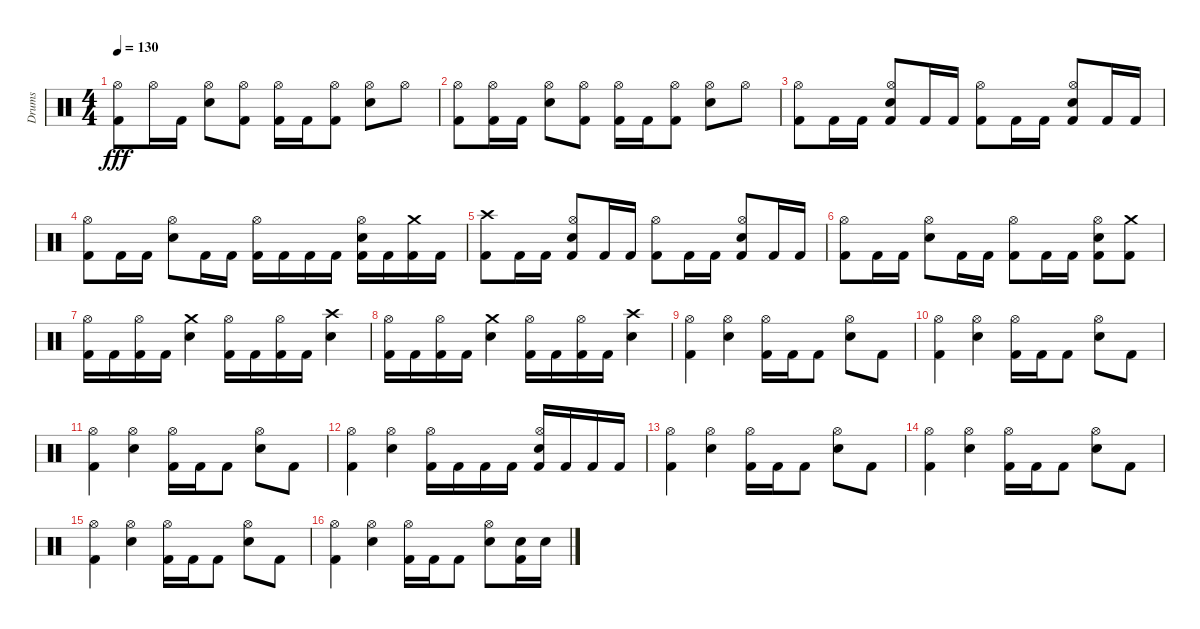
\track ("Drums" "Drums") {instrument percussion}
\staff {score}
\articulation defaults
\ts (4 4)
\tempo 130
\clef neutral
\ks c
("Kick (hit) 2" "Hi-Hat (open)").8{dy fff} "Hi-Hat (open)".16 "Kick (hit) 2".16 ("Electric Snare (hit)" "Hi-Hat (open)").8 ("Kick (hit) 2" "Hi-Hat (open)").8 ("Kick (hit) 2" "Hi-Hat (open)").16 "Kick (hit) 2".16 ("Kick (hit) 2" "Hi-Hat (open)").8 ("Electric Snare (hit)" "Hi-Hat (open)").8 "Hi-Hat (open)".8 |
("Hi-Hat (open)" "Kick (hit) 2").8 ("Hi-Hat (open)" "Kick (hit) 2").16 "Kick (hit) 2".16 ("Hi-Hat (open)" "Electric Snare (hit)").8 ("Hi-Hat (open)" "Kick (hit) 2").8 ("Hi-Hat (open)" "Kick (hit) 2").16 "Kick (hit) 2".16 ("Hi-Hat (open)" "Kick (hit) 2").8 ("Hi-Hat (open)" "Electric Snare (hit)").8 "Hi-Hat (open)".8 |
("Hi-Hat (open)" "Kick (hit) 2").8 "Kick (hit) 2".16 "Kick (hit) 2".16 ("Hi-Hat (open)" "Electric Snare (hit)" "Kick (hit) 2").8 "Kick (hit) 2".16 "Kick (hit) 2".16 ("Hi-Hat (open)" "Kick (hit) 2").8 "Kick (hit) 2".16 "Kick (hit) 2".16 ("Hi-Hat (open)" "Electric Snare (hit)" "Kick (hit) 2").8 "Kick (hit) 2".16 "Kick (hit) 2".16 |
("Hi-Hat (open)" "Kick (hit) 2").8 "Kick (hit) 2".16 "Kick (hit) 2".16 ("Hi-Hat (open)" "Electric Snare (hit)").8 "Kick (hit) 2".16 "Kick (hit) 2".16 ("Hi-Hat (open)" "Kick (hit) 2").16 "Kick (hit) 2".16 "Kick (hit) 2".16 "Kick (hit) 2".16 ("Hi-Hat (open)" "Electric Snare (hit)" "Kick (hit) 2").16 "Kick (hit) 2".16 ("Crash medium (hit)" "Kick (hit) 2").16 "Kick (hit) 2".16 |
("Crash high (hit)" "Kick (hit) 2").8 "Kick (hit) 2".16 "Kick (hit) 2".16 ("Hi-Hat (open)" "Electric Snare (hit)" "Kick (hit) 2").8 "Kick (hit) 2".16 "Kick (hit) 2".16 ("Hi-Hat (open)" "Kick (hit) 2").8 "Kick (hit) 2".16 "Kick (hit) 2".16 ("Hi-Hat (open)" "Electric Snare (hit)" "Kick (hit) 2").8 "Kick (hit) 2".16 "Kick (hit) 2".16 |
("Hi-Hat (open)" "Kick (hit) 2").8 "Kick (hit) 2".16 "Kick (hit) 2".16 ("Hi-Hat (open)" "Electric Snare (hit)").8 "Kick (hit) 2".16 "Kick (hit) 2".16 ("Hi-Hat (open)" "Kick (hit) 2").8 "Kick (hit) 2".16 "Kick (hit) 2".16 ("Hi-Hat (open)" "Electric Snare (hit)" "Kick (hit) 2").8 ("Crash medium (hit)" "Kick (hit) 2").8 |
("Hi-Hat (open)" "Kick (hit) 2").16 "Kick (hit) 2".16 ("Hi-Hat (open)" "Kick (hit) 2").16 "Kick (hit) 2".16 ("Crash medium (hit)" "Electric Snare (hit)").4 ("Hi-Hat (open)" "Kick (hit) 2").16 "Kick (hit) 2".16 ("Hi-Hat (open)" "Kick (hit) 2").16 "Kick (hit) 2".16 ("Crash high (hit)" "Electric Snare (hit)").4 |
("Kick (hit) 2" "Hi-Hat (open)").16 "Kick (hit) 2".16 ("Kick (hit) 2" "Hi-Hat (open)").16 "Kick (hit) 2".16 ("Electric Snare (hit)" "Crash medium (hit)").4 ("Hi-Hat (open)" "Kick (hit) 2").16 "Kick (hit) 2".16 ("Hi-Hat (open)" "Kick (hit) 2").16 "Kick (hit) 2".16 ("Crash high (hit)" "Electric Snare (hit)").4 |
("Hi-Hat (open)" "Kick (hit) 2").4 ("Hi-Hat (open)" "Snare (hit) 2").4 ("Hi-Hat (open)" "Kick (hit) 2").16 "Kick (hit) 2".16 "Kick (hit) 2".8 ("Hi-Hat (open)" "Electric Snare (hit)").8 "Kick (hit) 2".8 |
("Hi-Hat (open)" "Kick (hit) 2").4 ("Hi-Hat (open)" "Snare (hit) 2").4 ("Hi-Hat (open)" "Kick (hit) 2").16 "Kick (hit) 2".16 "Kick (hit) 2".8 ("Hi-Hat (open)" "Electric Snare (hit)").8 "Kick (hit) 2".8 |
("Hi-Hat (open)" "Kick (hit) 2").4 ("Hi-Hat (open)" "Snare (hit) 2").4 ("Hi-Hat (open)" "Kick (hit) 2").16 "Kick (hit) 2".16 "Kick (hit) 2".8 ("Hi-Hat (open)" "Electric Snare (hit)").8 "Kick (hit) 2".8 |
("Hi-Hat (open)" "Kick (hit) 2").4 ("Hi-Hat (open)" "Snare (hit) 2").4 ("Hi-Hat (open)" "Kick (hit) 2").16 "Kick (hit) 2".16 "Kick (hit) 2".16 "Kick (hit) 2".16 ("Kick (hit) 2" "Hi-Hat (open)" "Electric Snare (hit)").16 "Kick (hit) 2".16 "Kick (hit) 2".16 "Kick (hit) 2".16 |
("Hi-Hat (open)" "Kick (hit) 2").4 ("Hi-Hat (open)" "Snare (hit) 2").4 ("Hi-Hat (open)" "Kick (hit) 2").16 "Kick (hit) 2".16 "Kick (hit) 2".8 ("Hi-Hat (open)" "Electric Snare (hit)").8 "Kick (hit) 2".8 |
("Hi-Hat (open)" "Kick (hit) 2").4 ("Hi-Hat (open)" "Snare (hit) 2").4 ("Hi-Hat (open)" "Kick (hit) 2").16 "Kick (hit) 2".16 "Kick (hit) 2".8 ("Hi-Hat (open)" "Electric Snare (hit)").8 "Kick (hit) 2".8 |
("Hi-Hat (open)" "Kick (hit) 2").4 ("Hi-Hat (open)" "Snare (hit) 2").4 ("Hi-Hat (open)" "Kick (hit) 2").16 "Kick (hit) 2".16 "Kick (hit) 2".8 ("Hi-Hat (open)" "Electric Snare (hit)").8 "Kick (hit) 2".8 |
("Hi-Hat (open)" "Kick (hit) 2").4 ("Hi-Hat (open)" "Snare (hit) 2").4 ("Hi-Hat (open)" "Kick (hit) 2").16 "Kick (hit) 2".16 "Kick (hit) 2".8 ("Hi-Hat (open)" "Electric Snare (hit)").8 ("Electric Snare (hit)" "Kick (hit) 2").16 "Electric Snare (hit)".16
